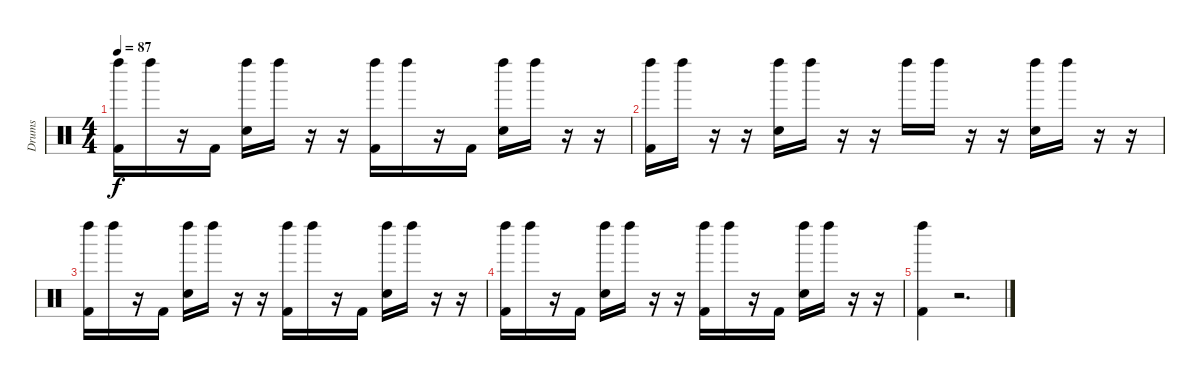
\track ("Drums" "Drums") {instrument percussion}
\staff {score}
\articulation defaults
\ts (4 4)
\tempo 87
\clef neutral
\ks c
("Left Maraca (hit)" "Kick (hit) 2").16{dy f} "Left Maraca (hit)".16 r.16 "Kick (hit) 2".16 ("Left Maraca (hit)" "Hand Clap (hit)").16 "Left Maraca (hit)".16 r.16 r.16 ("Left Maraca (hit)" "Kick (hit) 2").16 "Left Maraca (hit)".16 r.16 "Kick (hit) 2".16 ("Left Maraca (hit)" "Hand Clap (hit)").16 "Left Maraca (hit)".16 r.16 r.16 |
("Left Maraca (hit)" "Kick (hit) 2").16 "Left Maraca (hit)".16 r.16 r.16 ("Left Maraca (hit)" "Hand Clap (hit)").16 "Left Maraca (hit)".16 r.16 r.16 "Left Maraca (hit)".16 "Left Maraca (hit)".16 r.16 r.16 ("Left Maraca (hit)" "Hand Clap (hit)").16 "Left Maraca (hit)".16 r.16 r.16 |
("Left Maraca (hit)" "Kick (hit) 2").16 "Left Maraca (hit)".16 r.16 "Kick (hit) 2".16 ("Left Maraca (hit)" "Hand Clap (hit)").16 "Left Maraca (hit)".16 r.16 r.16 ("Left Maraca (hit)" "Kick (hit) 2").16 "Left Maraca (hit)".16 r.16 "Kick (hit) 2".16 ("Left Maraca (hit)" "Hand Clap (hit)").16 "Left Maraca (hit)".16 r.16 r.16 |
("Left Maraca (hit)" "Kick (hit) 2").16 "Left Maraca (hit)".16 r.16 "Kick (hit) 2".16 ("Left Maraca (hit)" "Hand Clap (hit)").16 "Left Maraca (hit)".16 r.16 r.16 ("Left Maraca (hit)" "Kick (hit) 2").16 "Left Maraca (hit)".16 r.16 "Kick (hit) 2".16 ("Left Maraca (hit)" "Hand Clap (hit)").16 "Left Maraca (hit)".16 r.16 r.16 |
("Left Maraca (hit)" "Kick (hit) 2").4 r.2{d}
